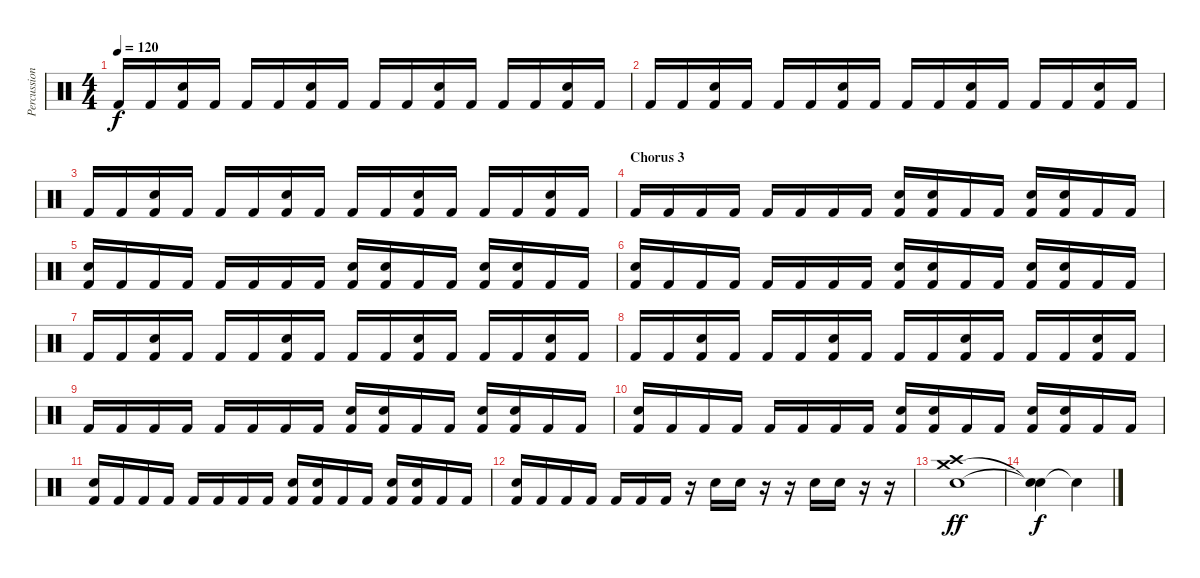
\track ("Percussion" "Percussion") {instrument percussion}
\staff {score}
\articulation defaults
\ts (4 4)
\tempo 120
\clef neutral
\ks c "Kick (hit) 2".16{dy f} "Kick (hit) 2".16
("Snare (hit) 2" "Kick (hit) 2").16 "Kick (hit) 2".16 "Kick (hit) 2".16 "Kick (hit) 2".16 ("Snare (hit) 2" "Kick (hit) 2").16 "Kick (hit) 2".16 "Kick (hit) 2".16 "Kick (hit) 2".16 ("Snare (hit) 2" "Kick (hit) 2").16 "Kick (hit) 2".16 "Kick (hit) 2".16 "Kick (hit) 2".16 ("Snare (hit) 2" "Kick (hit) 2").16 "Kick (hit) 2".16 |
"Kick (hit) 2".16 "Kick (hit) 2".16 ("Snare (hit) 2" "Kick (hit) 2").16 "Kick (hit) 2".16 "Kick (hit) 2".16 "Kick (hit) 2".16 ("Snare (hit) 2" "Kick (hit) 2").16 "Kick (hit) 2".16 "Kick (hit) 2".16 "Kick (hit) 2".16 ("Snare (hit) 2" "Kick (hit) 2").16 "Kick (hit) 2".16 "Kick (hit) 2".16 "Kick (hit) 2".16 ("Snare (hit) 2" "Kick (hit) 2").16 "Kick (hit) 2".16 |
"Kick (hit) 2".16 "Kick (hit) 2".16 ("Snare (hit) 2" "Kick (hit) 2").16 "Kick (hit) 2".16 "Kick (hit) 2".16 "Kick (hit) 2".16 ("Snare (hit) 2" "Kick (hit) 2").16 "Kick (hit) 2".16 "Kick (hit) 2".16 "Kick (hit) 2".16 ("Snare (hit) 2" "Kick (hit) 2").16 "Kick (hit) 2".16 "Kick (hit) 2".16 "Kick (hit) 2".16 ("Snare (hit) 2" "Kick (hit) 2").16 "Kick (hit) 2".16 |
\section ("" "Chorus 3")
"Kick (hit) 2".16 "Kick (hit) 2".16 "Kick (hit) 2".16 "Kick (hit) 2".16 "Kick (hit) 2".16 "Kick (hit) 2".16 "Kick (hit) 2".16 "Kick (hit) 2".16 ("Snare (hit) 2" "Kick (hit) 2").16 ("Snare (hit) 2" "Kick (hit) 2").16 "Kick (hit) 2".16 "Kick (hit) 2".16 ("Snare (hit) 2" "Kick (hit) 2").16 ("Snare (hit) 2" "Kick (hit) 2").16 "Kick (hit) 2".16 "Kick (hit) 2".16 |
("Snare (hit) 2" "Kick (hit) 2").16 "Kick (hit) 2".16 "Kick (hit) 2".16 "Kick (hit) 2".16 "Kick (hit) 2".16 "Kick (hit) 2".16 "Kick (hit) 2".16 "Kick (hit) 2".16 ("Snare (hit) 2" "Kick (hit) 2").16 ("Snare (hit) 2" "Kick (hit) 2").16 "Kick (hit) 2".16 "Kick (hit) 2".16 ("Snare (hit) 2" "Kick (hit) 2").16 ("Snare (hit) 2" "Kick (hit) 2").16 "Kick (hit) 2".16 "Kick (hit) 2".16 |
("Snare (hit) 2" "Kick (hit) 2").16 "Kick (hit) 2".16 "Kick (hit) 2".16 "Kick (hit) 2".16 "Kick (hit) 2".16 "Kick (hit) 2".16 "Kick (hit) 2".16 "Kick (hit) 2".16 ("Snare (hit) 2" "Kick (hit) 2").16 ("Snare (hit) 2" "Kick (hit) 2").16 "Kick (hit) 2".16 "Kick (hit) 2".16 ("Snare (hit) 2" "Kick (hit) 2").16 ("Snare (hit) 2" "Kick (hit) 2").16 "Kick (hit) 2".16 "Kick (hit) 2".16 |
"Kick (hit) 2".16 "Kick (hit) 2".16 ("Snare (hit) 2" "Kick (hit) 2").16 "Kick (hit) 2".16 "Kick (hit) 2".16 "Kick (hit) 2".16 ("Snare (hit) 2" "Kick (hit) 2").16 "Kick (hit) 2".16 "Kick (hit) 2".16 "Kick (hit) 2".16 ("Snare (hit) 2" "Kick (hit) 2").16 "Kick (hit) 2".16 "Kick (hit) 2".16 "Kick (hit) 2".16 ("Snare (hit) 2" "Kick (hit) 2").16 "Kick (hit) 2".16 |
"Kick (hit) 2".16 "Kick (hit) 2".16 ("Snare (hit) 2" "Kick (hit) 2").16 "Kick (hit) 2".16 "Kick (hit) 2".16 "Kick (hit) 2".16 ("Snare (hit) 2" "Kick (hit) 2").16 "Kick (hit) 2".16 "Kick (hit) 2".16 "Kick (hit) 2".16 ("Snare (hit) 2" "Kick (hit) 2").16 "Kick (hit) 2".16 "Kick (hit) 2".16 "Kick (hit) 2".16 ("Snare (hit) 2" "Kick (hit) 2").16 "Kick (hit) 2".16 |
"Kick (hit) 2".16 "Kick (hit) 2".16 "Kick (hit) 2".16 "Kick (hit) 2".16 "Kick (hit) 2".16 "Kick (hit) 2".16 "Kick (hit) 2".16 "Kick (hit) 2".16 ("Snare (hit) 2" "Kick (hit) 2").16 ("Snare (hit) 2" "Kick (hit) 2").16 "Kick (hit) 2".16 "Kick (hit) 2".16 ("Snare (hit) 2" "Kick (hit) 2").16 ("Snare (hit) 2" "Kick (hit) 2").16 "Kick (hit) 2".16 "Kick (hit) 2".16 |
("Snare (hit) 2" "Kick (hit) 2").16 "Kick (hit) 2".16 "Kick (hit) 2".16 "Kick (hit) 2".16 "Kick (hit) 2".16 "Kick (hit) 2".16 "Kick (hit) 2".16 "Kick (hit) 2".16 ("Snare (hit) 2" "Kick (hit) 2").16 ("Snare (hit) 2" "Kick (hit) 2").16 "Kick (hit) 2".16 "Kick (hit) 2".16 ("Snare (hit) 2" "Kick (hit) 2").16 ("Snare (hit) 2" "Kick (hit) 2").16 "Kick (hit) 2".16 "Kick (hit) 2".16 |
("Snare (hit) 2" "Kick (hit) 2").16 "Kick (hit) 2".16 "Kick (hit) 2".16 "Kick (hit) 2".16 "Kick (hit) 2".16 "Kick (hit) 2".16 "Kick (hit) 2".16 "Kick (hit) 2".16 ("Snare (hit) 2" "Kick (hit) 2").16 ("Snare (hit) 2" "Kick (hit) 2").16 "Kick (hit) 2".16 "Kick (hit) 2".16 ("Snare (hit) 2" "Kick (hit) 2").16 ("Snare (hit) 2" "Kick (hit) 2").16 "Kick (hit) 2".16 "Kick (hit) 2".16 |
("Snare (hit) 2" "Kick (hit) 2").16 "Kick (hit) 2".16 "Kick (hit) 2".16 "Kick (hit) 2".16 "Kick (hit) 2".16 "Kick (hit) 2".16 "Kick (hit) 2".16 r.16 "Snare (hit) 2".16 "Snare (hit) 2".16 r.16 r.16 "Snare (hit) 2".16 "Snare (hit) 2".16 r.16 r.16 |
("Crash medium (hit)" "Snare (hit) 2" "Crash high (hit)").1{dy ff} |
("Snare (hit)"{t} "Snare (hit)"{t}).4{dy f} "Snare (hit)"{t}.4
